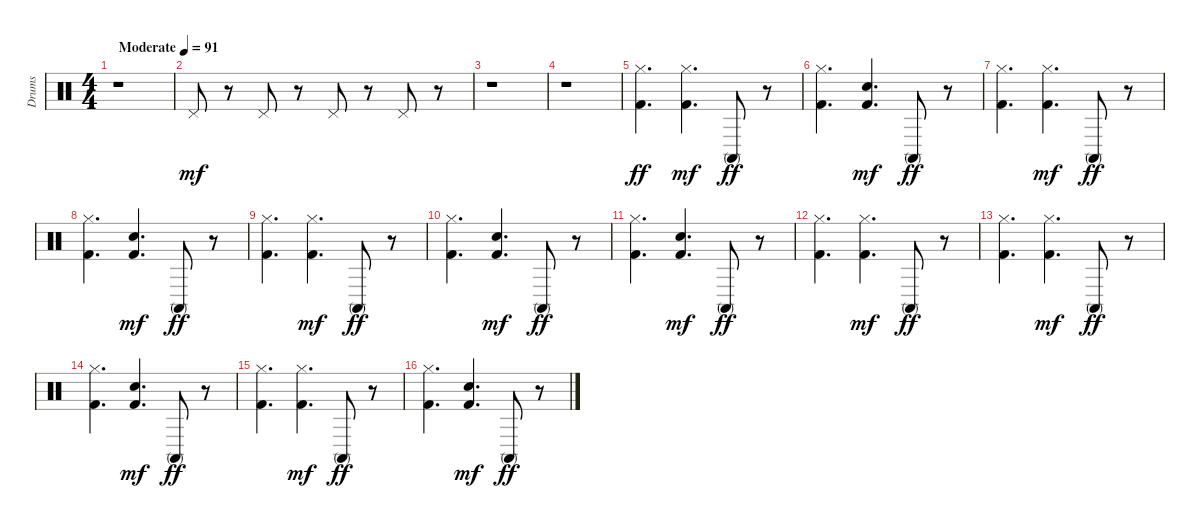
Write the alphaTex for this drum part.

\track ("Drums" "Drums") {instrument percussion}
\staff {score}
\articulation defaults
\ts (4 4)
\tempo (91 "Moderate")
\clef neutral
\ks c
r.1{dy mf} |
"Pedal Hi-Hat (hit)".8 r.8 "Pedal Hi-Hat (hit)".8 r.8 "Pedal Hi-Hat (hit)".8 r.8 "Pedal Hi-Hat (hit)".8 r.8 |
r.1 |
r.1 |
("Hi-Hat (closed)" "Kick (hit) 2").4{d dy ff} ("Hi-Hat (closed)" "Kick (hit) 2").4{d dy mf} "Conga high (mute)".8{dy ff} r.8 |
("Hi-Hat (closed)" "Kick (hit) 2").4{d} ("Hand Clap (hit)" "Kick (hit) 2").4{d dy mf} "Conga high (mute)".8{dy ff} r.8 |
("Hi-Hat (closed)" "Kick (hit) 2").4{d} ("Hi-Hat (closed)" "Kick (hit) 2").4{d dy mf} "Conga high (mute)".8{dy ff} r.8 |
("Hi-Hat (closed)" "Kick (hit) 2").4{d} ("Hand Clap (hit)" "Kick (hit) 2").4{d dy mf} "Conga high (mute)".8{dy ff} r.8 |
("Hi-Hat (closed)" "Kick (hit) 2").4{d} ("Hi-Hat (closed)" "Kick (hit) 2").4{d dy mf} "Conga high (mute)".8{dy ff} r.8 |
("Hi-Hat (closed)" "Kick (hit) 2").4{d} ("Hand Clap (hit)" "Kick (hit) 2").4{d dy mf} "Conga high (mute)".8{dy ff} r.8 |
("Hi-Hat (closed)" "Kick (hit) 2").4{d} ("Hand Clap (hit)" "Kick (hit) 2").4{d dy mf} "Conga high (mute)".8{dy ff} r.8 |
("Hi-Hat (closed)" "Kick (hit) 2").4{d} ("Hi-Hat (closed)" "Kick (hit) 2").4{d dy mf} "Conga high (mute)".8{dy ff} r.8 |
("Hi-Hat (closed)" "Kick (hit) 2").4{d} ("Hi-Hat (closed)" "Kick (hit) 2").4{d dy mf} "Conga high (mute)".8{dy ff} r.8 |
("Hi-Hat (closed)" "Kick (hit) 2").4{d} ("Hand Clap (hit)" "Kick (hit) 2").4{d dy mf} "Conga high (mute)".8{dy ff} r.8 |
("Hi-Hat (closed)" "Kick (hit) 2").4{d} ("Hi-Hat (closed)" "Kick (hit) 2").4{d dy mf} "Conga high (mute)".8{dy ff} r.8 |
("Hi-Hat (closed)" "Kick (hit) 2").4{d} ("Hand Clap (hit)" "Kick (hit) 2").4{d dy mf} "Conga high (mute)".8{dy ff} r.8
